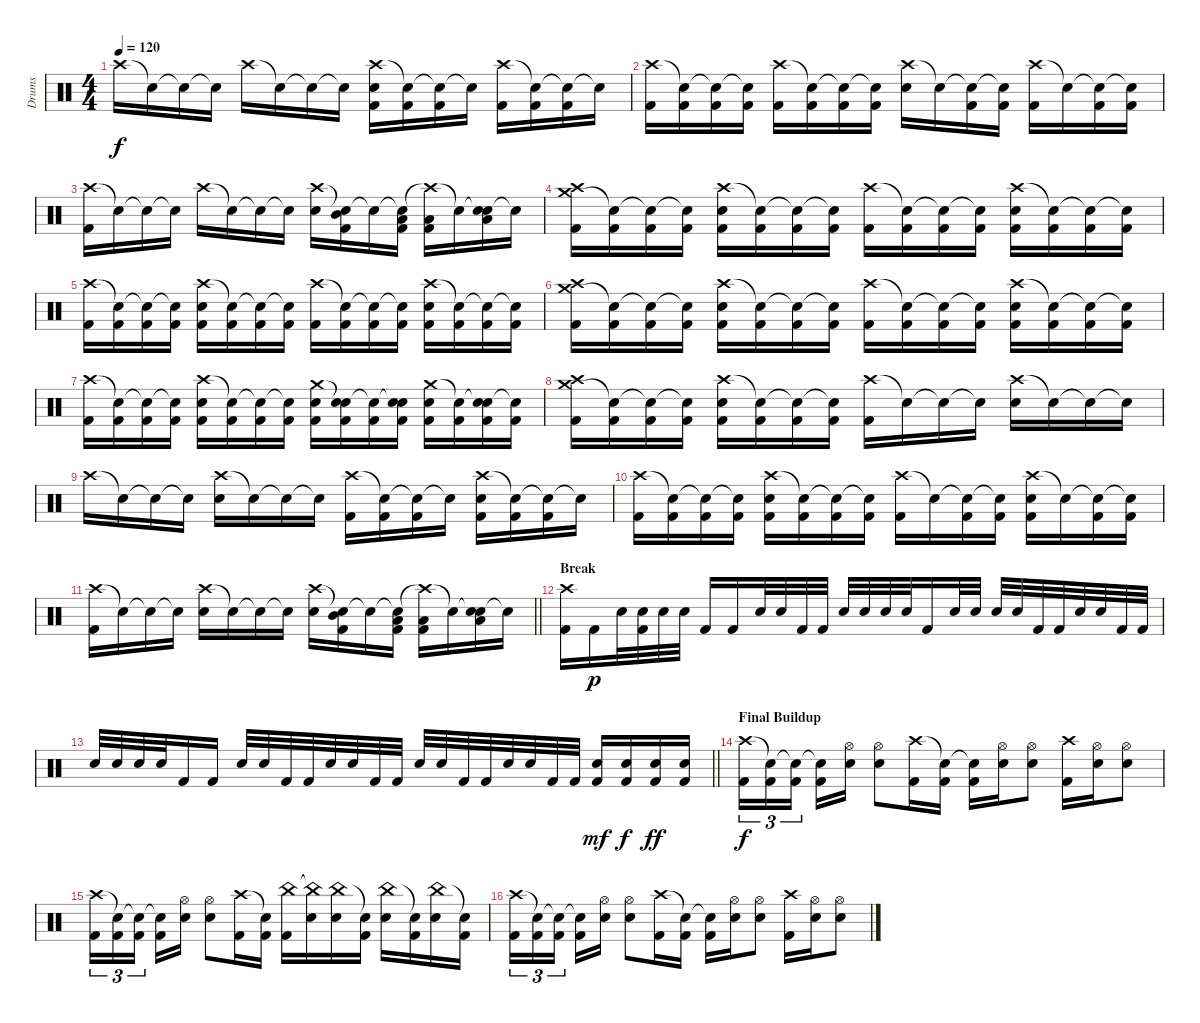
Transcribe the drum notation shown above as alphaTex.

\track ("Drums" "Drums") {instrument percussion}
\staff {score}
\articulation defaults
\ts (4 4)
\tempo 120
\clef neutral
\ks c "Crash high (hit)".16{dy f} "Snare (hit)"{t}.16 "Snare (hit)"{t}.16 "Snare (hit)"{t}.16 "Crash high (hit)".16 "Snare (hit)"{t}.16 "Snare (hit)"{t}.16 "Snare (hit)"{t}.16
("Crash high (hit)" "Electric Snare (hit)" "Kick (hit) 2").16 ("Snare (hit)"{t} "Kick (hit) 2").16 ("Snare (hit)"{t} "Kick (hit) 2").16 "Snare (hit)"{t}.16 ("Crash high (hit)" "Kick (hit) 2").16 ("Snare (hit)"{t} "Kick (hit) 2").16 ("Snare (hit)"{t} "Kick (hit) 2").16 "Snare (hit)"{t}.16 |
("Crash high (hit)" "Kick (hit) 2").16 ("Snare (hit)"{t} "Kick (hit) 2").16 ("Snare (hit)"{t} "Kick (hit) 2").16 ("Snare (hit)"{t} "Kick (hit) 2").16 ("Crash high (hit)" "Kick (hit) 2").16 ("Snare (hit)"{t} "Kick (hit) 2").16 ("Snare (hit)"{t} "Kick (hit) 2").16 ("Snare (hit)"{t} "Kick (hit) 2").16 ("Crash high (hit)" "Electric Snare (hit)").16 "Snare (hit)"{t}.16 ("Snare (hit)"{t} "Kick (hit) 2").16 ("Snare (hit)"{t} "Kick (hit) 2").16 ("Crash high (hit)" "Kick (hit) 2").16 "Snare (hit)"{t}.16 ("Snare (hit)"{t} "Kick (hit) 2").16 ("Snare (hit)"{t} "Kick (hit) 2").16 |
("Crash high (hit)" "Kick (hit) 2").16 "Snare (hit)"{t}.16 "Snare (hit)"{t}.16 "Snare (hit)"{t}.16 "Crash high (hit)".16 "Snare (hit)"{t}.16 "Snare (hit)"{t}.16 "Snare (hit)"{t}.16 ("Crash high (hit)" "Electric Snare (hit)").16 ("Snare (hit)"{t} "Mid Tom (hit)" "Kick (hit) 2").16 "Snare (hit)"{t}.16 ("Snare (hit)"{t} "Low Floor Tom (hit)" "Kick (hit) 2").16 ("Crash high (hit)"{t} "Low Floor Tom (hit)" "Kick (hit) 2").16 "Snare (hit)"{t}.16 ("Snare (hit)"{t} "Electric Snare (hit)" "Low Floor Tom (hit)").16 "Snare (hit)"{t}.16 |
("Crash medium (hit)" "Crash high (hit)" "Kick (hit) 2").16 ("Snare (hit)"{t} "Kick (hit) 2").16 ("Snare (hit)"{t} "Kick (hit) 2").16 ("Snare (hit)"{t} "Kick (hit) 2").16 ("Crash high (hit)" "Electric Snare (hit)" "Kick (hit) 2").16 ("Snare (hit)"{t} "Kick (hit) 2").16 ("Snare (hit)"{t} "Kick (hit) 2").16 ("Snare (hit)"{t} "Kick (hit) 2").16 ("Crash high (hit)" "Kick (hit) 2").16 ("Snare (hit)"{t} "Kick (hit) 2").16 ("Snare (hit)"{t} "Kick (hit) 2").16 ("Snare (hit)"{t} "Kick (hit) 2").16 ("Crash high (hit)" "Electric Snare (hit)" "Kick (hit) 2").16 ("Snare (hit)"{t} "Kick (hit) 2").16 ("Snare (hit)"{t} "Kick (hit) 2").16 ("Snare (hit)"{t} "Kick (hit) 2").16 |
("Crash high (hit)" "Kick (hit) 2").16 ("Snare (hit)"{t} "Kick (hit) 2").16 ("Snare (hit)"{t} "Kick (hit) 2").16 ("Snare (hit)"{t} "Kick (hit) 2").16 ("Crash high (hit)" "Electric Snare (hit)" "Kick (hit) 2").16 ("Snare (hit)"{t} "Kick (hit) 2").16 ("Snare (hit)"{t} "Kick (hit) 2").16 ("Snare (hit)"{t} "Kick (hit) 2").16 ("Crash high (hit)" "Kick (hit) 2").16 ("Snare (hit)"{t} "Kick (hit) 2").16 ("Snare (hit)"{t} "Kick (hit) 2").16 ("Snare (hit)"{t} "Kick (hit) 2").16 ("Crash high (hit)" "Electric Snare (hit)" "Kick (hit) 2").16 ("Snare (hit)"{t} "Kick (hit) 2").16 ("Snare (hit)"{t} "Kick (hit) 2").16 ("Snare (hit)"{t} "Kick (hit) 2").16 |
("Crash medium (hit)" "Crash high (hit)" "Kick (hit) 2").16 ("Snare (hit)"{t} "Kick (hit) 2").16 ("Snare (hit)"{t} "Kick (hit) 2").16 ("Snare (hit)"{t} "Kick (hit) 2").16 ("Crash high (hit)" "Electric Snare (hit)" "Kick (hit) 2").16 ("Snare (hit)"{t} "Kick (hit) 2").16 ("Snare (hit)"{t} "Kick (hit) 2").16 ("Snare (hit)"{t} "Kick (hit) 2").16 ("Crash high (hit)" "Kick (hit) 2").16 ("Snare (hit)"{t} "Kick (hit) 2").16 ("Snare (hit)"{t} "Kick (hit) 2").16 ("Snare (hit)"{t} "Kick (hit) 2").16 ("Crash high (hit)" "Electric Snare (hit)" "Kick (hit) 2").16 ("Snare (hit)"{t} "Kick (hit) 2").16 ("Snare (hit)"{t} "Kick (hit) 2").16 ("Snare (hit)"{t} "Kick (hit) 2").16 |
("Crash high (hit)" "Kick (hit) 2").16 ("Snare (hit)"{t} "Kick (hit) 2").16 ("Snare (hit)"{t} "Kick (hit) 2").16 ("Snare (hit)"{t} "Kick (hit) 2").16 ("Crash high (hit)" "Electric Snare (hit)" "Kick (hit) 2").16 ("Snare (hit)"{t} "Kick (hit) 2").16 ("Snare (hit)"{t} "Kick (hit) 2").16 ("Snare (hit)"{t} "Kick (hit) 2").16 ("Crash medium (hit)" "Electric Snare (hit)" "Kick (hit) 2").16 ("Snare (hit)"{t} "Electric Snare (hit)" "Kick (hit) 2").16 ("Snare (hit)"{t} "Kick (hit) 2").16 ("Snare (hit)"{t} "Electric Snare (hit)" "Kick (hit) 2").16 ("Crash medium (hit)" "Electric Snare (hit)" "Kick (hit) 2").16 ("Snare (hit)"{t} "Kick (hit) 2").16 ("Snare (hit)"{t} "Electric Snare (hit)" "Kick (hit) 2").16 ("Snare (hit)"{t} "Kick (hit) 2").16 |
("Crash medium (hit)" "Crash high (hit)" "Kick (hit) 2").16 ("Snare (hit)"{t} "Kick (hit) 2").16 ("Snare (hit)"{t} "Kick (hit) 2").16 ("Snare (hit)"{t} "Kick (hit) 2").16 ("Crash high (hit)" "Electric Snare (hit)" "Kick (hit) 2").16 ("Snare (hit)"{t} "Kick (hit) 2").16 ("Snare (hit)"{t} "Kick (hit) 2").16 ("Snare (hit)"{t} "Kick (hit) 2").16 ("Crash high (hit)" "Kick (hit) 2").16 "Snare (hit)"{t}.16 "Snare (hit)"{t}.16 "Snare (hit)"{t}.16 ("Crash high (hit)" "Electric Snare (hit)").16 "Snare (hit)"{t}.16 "Snare (hit)"{t}.16 "Snare (hit)"{t}.16 |
"Crash high (hit)".16 "Snare (hit)"{t}.16 "Snare (hit)"{t}.16 "Snare (hit)"{t}.16 ("Crash high (hit)" "Electric Snare (hit)").16 "Snare (hit)"{t}.16 "Snare (hit)"{t}.16 "Snare (hit)"{t}.16 ("Crash high (hit)" "Kick (hit) 2").16 ("Snare (hit)"{t} "Kick (hit) 2").16 ("Snare (hit)"{t} "Kick (hit) 2").16 "Snare (hit)"{t}.16 ("Crash high (hit)" "Electric Snare (hit)" "Kick (hit) 2").16 ("Snare (hit)"{t} "Kick (hit) 2").16 ("Snare (hit)"{t} "Kick (hit) 2").16 "Snare (hit)"{t}.16 |
("Crash high (hit)" "Kick (hit) 2").16 ("Snare (hit)"{t} "Kick (hit) 2").16 ("Snare (hit)"{t} "Kick (hit) 2").16 ("Snare (hit)"{t} "Kick (hit) 2").16 ("Crash high (hit)" "Electric Snare (hit)" "Kick (hit) 2").16 ("Snare (hit)"{t} "Kick (hit) 2").16 ("Snare (hit)"{t} "Kick (hit) 2").16 ("Snare (hit)"{t} "Kick (hit) 2").16 ("Crash high (hit)" "Kick (hit) 2").16 "Snare (hit)"{t}.16 ("Snare (hit)"{t} "Kick (hit) 2").16 ("Snare (hit)"{t} "Kick (hit) 2").16 ("Crash high (hit)" "Electric Snare (hit)" "Kick (hit) 2").16 "Snare (hit)"{t}.16 ("Snare (hit)"{t} "Kick (hit) 2").16 ("Snare (hit)"{t} "Kick (hit) 2").16 |
\barLineRight lightlight
("Crash high (hit)" "Kick (hit) 2").16 "Snare (hit)"{t}.16 "Snare (hit)"{t}.16 "Snare (hit)"{t}.16 ("Crash high (hit)" "Electric Snare (hit)").16 "Snare (hit)"{t}.16 "Snare (hit)"{t}.16 "Snare (hit)"{t}.16 ("Crash high (hit)" "Electric Snare (hit)").16 ("Snare (hit)"{t} "Mid Tom (hit)" "Kick (hit) 2").16 "Snare (hit)"{t}.16 ("Snare (hit)"{t} "Low Floor Tom (hit)" "Kick (hit) 2").16 ("Crash high (hit)"{t} "Low Floor Tom (hit)" "Kick (hit) 2").16 "Snare (hit)"{t}.16 ("Snare (hit)"{t} "Electric Snare (hit)" "Low Floor Tom (hit)").16 "Snare (hit)"{t}.16 |
\section ("" "Break")
("Crash high (hit)" "Kick (hit) 2").16 "Kick (hit) 2".16{dy p} "Electric Snare (hit)".32 ("Electric Snare (hit)" "Kick (hit) 2").32 "Electric Snare (hit)".32 "Electric Snare (hit)".32 "Kick (hit) 2".16 "Kick (hit) 2".16 "Electric Snare (hit)".32 "Electric Snare (hit)".32 "Kick (hit) 2".32 "Kick (hit) 2".32 "Electric Snare (hit)".32 "Electric Snare (hit)".32 "Electric Snare (hit)".32 "Electric Snare (hit)".32 "Kick (hit) 2".16 "Electric Snare (hit)".32 "Electric Snare (hit)".32 "Electric Snare (hit)".32 "Electric Snare (hit)".32 "Kick (hit) 2".32 "Kick (hit) 2".32 "Electric Snare (hit)".32 "Electric Snare (hit)".32 "Kick (hit) 2".32 "Kick (hit) 2".32 |
\barLineRight lightlight "Electric Snare (hit)".32 "Electric Snare (hit)".32 "Electric Snare (hit)".32 "Electric Snare (hit)".32 "Kick (hit) 2".16 "Kick (hit) 2".16 "Electric Snare (hit)".32 "Electric Snare (hit)".32 "Kick (hit) 2".32 "Kick (hit) 2".32 "Electric Snare (hit)".32 "Electric Snare (hit)".32 "Kick (hit) 2".32 "Kick (hit) 2".32 "Electric Snare (hit)".32 "Electric Snare (hit)".32 "Kick (hit) 2".32 "Kick (hit) 2".32 "Electric Snare (hit)".32 "Electric Snare (hit)".32 "Kick (hit) 2".32 "Kick (hit) 2".32
("Electric Snare (hit)" "Kick (hit) 2").16{dy mf} ("Electric Snare (hit)" "Kick (hit) 2").16{dy f} ("Electric Snare (hit)" "Kick (hit) 2").16{dy ff} ("Electric Snare (hit)" "Kick (hit) 2").16 |
\section ("" "Final Buildup")
("Crash high (hit)" "Kick (hit) 2").16{tu (3 2) dy f} ("Snare (hit)"{t} "Kick (hit) 2").16{tu (3 2)} ("Snare (hit)"{t} "Kick (hit) 2").16{tu (3 2) beam splitsecondary} ("Snare (hit)"{t} "Kick (hit) 2").16 ("Hi-Hat (open)" "Electric Snare (hit)").16 ("Hi-Hat (open)" "Electric Snare (hit)").8 ("Crash high (hit)" "Kick (hit) 2").16 ("Snare (hit)"{t} "Kick (hit) 2").16 ("Snare (hit)"{t} "Kick (hit) 2").16 ("Hi-Hat (open)" "Electric Snare (hit)").16 ("Hi-Hat (open)" "Electric Snare (hit)").8 ("Crash high (hit)" "Kick (hit) 2").16 ("Hi-Hat (open)" "Electric Snare (hit)").16 ("Hi-Hat (open)" "Electric Snare (hit)").8 |
("Crash high (hit)" "Kick (hit) 2").16{tu (3 2)} ("Snare (hit)"{t} "Kick (hit) 2").16{tu (3 2)} ("Snare (hit)"{t} "Kick (hit) 2").16{tu (3 2) beam splitsecondary} ("Snare (hit)"{t} "Kick (hit) 2").16 ("Hi-Hat (open)" "Electric Snare (hit)").16 ("Hi-Hat (open)" "Electric Snare (hit)").8 ("Crash high (hit)" "Kick (hit) 2").16 ("Snare (hit)"{t} "Kick (hit) 2").16 ("China (hit)" "Kick (hit) 2").16 ("China (hit)"{t} "Electric Snare (hit)").16 ("China (hit)" "Electric Snare (hit)").16 ("Snare (hit)"{t} "Kick (hit) 2").16 ("China (hit)" "Electric Snare (hit)").16 ("Snare (hit)"{t} "Kick (hit) 2").16 ("China (hit)" "Electric Snare (hit)").16 ("Snare (hit)"{t} "Kick (hit) 2").16 |
("Crash high (hit)" "Kick (hit) 2").16{tu (3 2)} ("Snare (hit)"{t} "Kick (hit) 2").16{tu (3 2)} ("Snare (hit)"{t} "Kick (hit) 2").16{tu (3 2) beam splitsecondary} ("Snare (hit)"{t} "Kick (hit) 2").16 ("Hi-Hat (open)" "Electric Snare (hit)").16 ("Hi-Hat (open)" "Electric Snare (hit)").8 ("Crash high (hit)" "Kick (hit) 2").16 ("Snare (hit)"{t} "Kick (hit) 2").16 ("Snare (hit)"{t} "Kick (hit) 2").16 ("Hi-Hat (open)" "Electric Snare (hit)").16 ("Hi-Hat (open)" "Electric Snare (hit)").8 ("Crash high (hit)" "Kick (hit) 2").16 ("Hi-Hat (open)" "Electric Snare (hit)").16 ("Hi-Hat (open)" "Electric Snare (hit)").8
